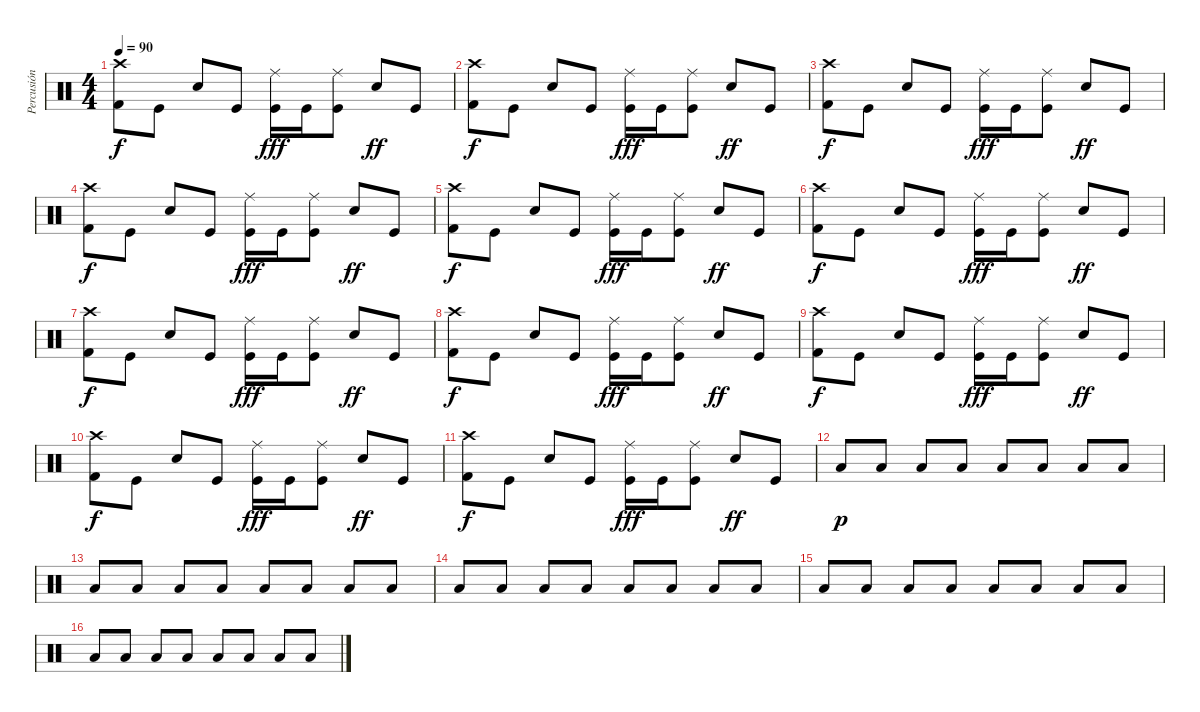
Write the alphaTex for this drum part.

\track ("Percusión" "Percusión") {instrument percussion}
\staff {score}
\articulation defaults
\ts (4 4)
\tempo 90
\clef neutral
\ks c
("Kick (hit) 2" "Crash high (hit)").8{dy f} "Kick (hit)".8 "Snare (hit) 2".8 "Kick (hit)".8 ("Kick (hit)" "Ride (middle)").16{dy fff} "Kick (hit)".16 ("Kick (hit)" "Ride (middle)").8 "Snare (hit) 2".8{dy ff} "Kick (hit)".8 |
("Kick (hit) 2" "Crash high (hit)").8{dy f} "Kick (hit)".8 "Snare (hit) 2".8 "Kick (hit)".8 ("Kick (hit)" "Ride (middle)").16{dy fff} "Kick (hit)".16 ("Kick (hit)" "Ride (middle)").8 "Snare (hit) 2".8{dy ff} "Kick (hit)".8 |
("Kick (hit) 2" "Crash high (hit)").8{dy f} "Kick (hit)".8 "Snare (hit) 2".8 "Kick (hit)".8 ("Kick (hit)" "Ride (middle)").16{dy fff} "Kick (hit)".16 ("Kick (hit)" "Ride (middle)").8 "Snare (hit) 2".8{dy ff} "Kick (hit)".8 |
("Kick (hit) 2" "Crash high (hit)").8{dy f} "Kick (hit)".8 "Snare (hit) 2".8 "Kick (hit)".8 ("Kick (hit)" "Ride (middle)").16{dy fff} "Kick (hit)".16 ("Kick (hit)" "Ride (middle)").8 "Snare (hit) 2".8{dy ff} "Kick (hit)".8 |
("Kick (hit) 2" "Crash high (hit)").8{dy f} "Kick (hit)".8 "Snare (hit) 2".8 "Kick (hit)".8 ("Kick (hit)" "Ride (middle)").16{dy fff} "Kick (hit)".16 ("Kick (hit)" "Ride (middle)").8 "Snare (hit) 2".8{dy ff} "Kick (hit)".8 |
("Kick (hit) 2" "Crash high (hit)").8{dy f} "Kick (hit)".8 "Snare (hit) 2".8 "Kick (hit)".8 ("Kick (hit)" "Ride (middle)").16{dy fff} "Kick (hit)".16 ("Kick (hit)" "Ride (middle)").8 "Snare (hit) 2".8{dy ff} "Kick (hit)".8 |
("Kick (hit) 2" "Crash high (hit)").8{dy f} "Kick (hit)".8 "Snare (hit) 2".8 "Kick (hit)".8 ("Kick (hit)" "Ride (middle)").16{dy fff} "Kick (hit)".16 ("Kick (hit)" "Ride (middle)").8 "Snare (hit) 2".8{dy ff} "Kick (hit)".8 |
("Kick (hit) 2" "Crash high (hit)").8{dy f} "Kick (hit)".8 "Snare (hit) 2".8 "Kick (hit)".8 ("Kick (hit)" "Ride (middle)").16{dy fff} "Kick (hit)".16 ("Kick (hit)" "Ride (middle)").8 "Snare (hit) 2".8{dy ff} "Kick (hit)".8 |
("Kick (hit) 2" "Crash high (hit)").8{dy f} "Kick (hit)".8 "Snare (hit) 2".8 "Kick (hit)".8 ("Kick (hit)" "Ride (middle)").16{dy fff} "Kick (hit)".16 ("Kick (hit)" "Ride (middle)").8 "Snare (hit) 2".8{dy ff} "Kick (hit)".8 |
("Kick (hit) 2" "Crash high (hit)").8{dy f} "Kick (hit)".8 "Snare (hit) 2".8 "Kick (hit)".8 ("Kick (hit)" "Ride (middle)").16{dy fff} "Kick (hit)".16 ("Kick (hit)" "Ride (middle)").8 "Snare (hit) 2".8{dy ff} "Kick (hit)".8 |
("Kick (hit) 2" "Crash high (hit)").8{dy f} "Kick (hit)".8 "Snare (hit) 2".8 "Kick (hit)".8 ("Kick (hit)" "Ride (middle)").16{dy fff} "Kick (hit)".16 ("Kick (hit)" "Ride (middle)").8 "Snare (hit) 2".8{dy ff} "Kick (hit)".8 |
"Low Tom (hit)".8{dy p} "Low Tom (hit)".8 "Low Tom (hit)".8 "Low Tom (hit)".8 "Low Tom (hit)".8 "Low Tom (hit)".8 "Low Tom (hit)".8 "Low Tom (hit)".8 |
"Low Tom (hit)".8 "Low Tom (hit)".8 "Low Tom (hit)".8 "Low Tom (hit)".8 "Low Tom (hit)".8 "Low Tom (hit)".8 "Low Tom (hit)".8 "Low Tom (hit)".8 |
"Low Tom (hit)".8 "Low Tom (hit)".8 "Low Tom (hit)".8 "Low Tom (hit)".8 "Low Tom (hit)".8 "Low Tom (hit)".8 "Low Tom (hit)".8 "Low Tom (hit)".8 |
"Low Tom (hit)".8 "Low Tom (hit)".8 "Low Tom (hit)".8 "Low Tom (hit)".8 "Low Tom (hit)".8 "Low Tom (hit)".8 "Low Tom (hit)".8 "Low Tom (hit)".8 |
"Low Tom (hit)".8 "Low Tom (hit)".8 "Low Tom (hit)".8 "Low Tom (hit)".8 "Low Tom (hit)".8 "Low Tom (hit)".8 "Low Tom (hit)".8 "Low Tom (hit)".8
